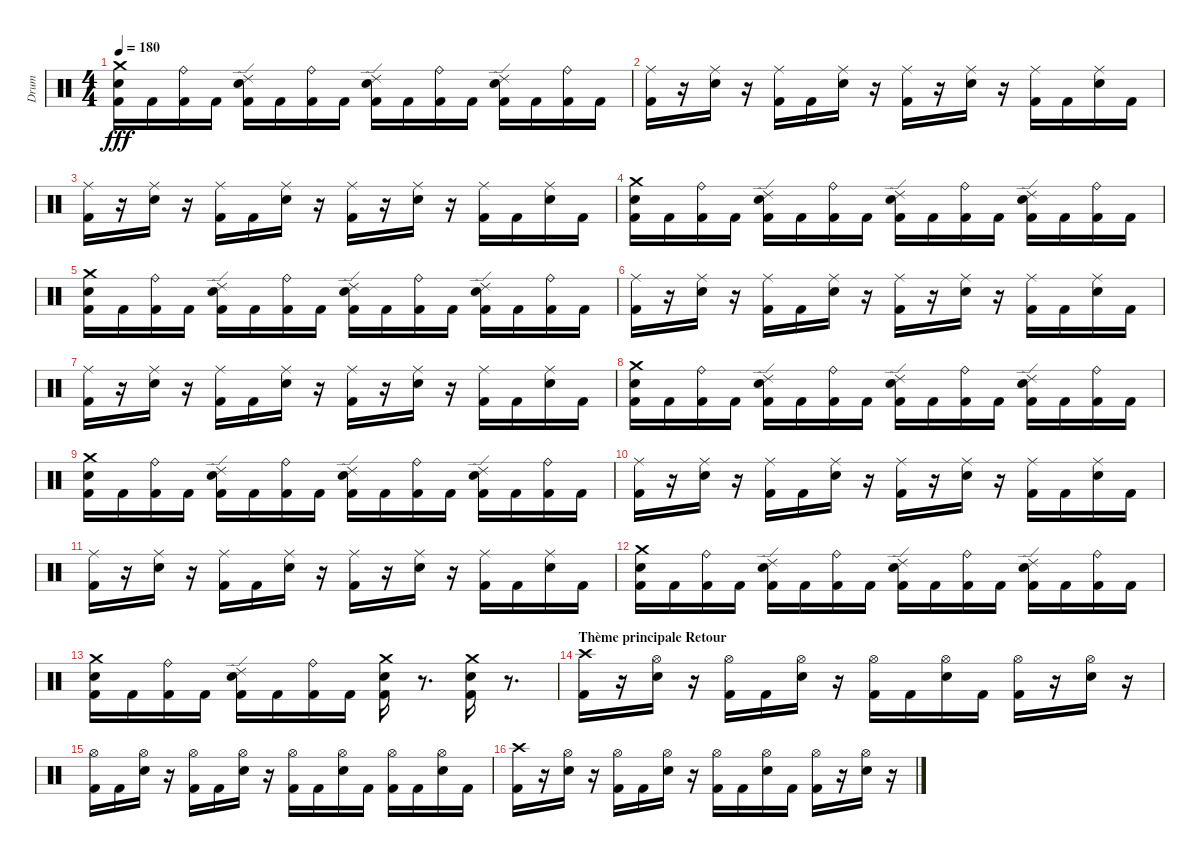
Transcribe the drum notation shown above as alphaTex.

\track ("Drum" "Drum") {instrument percussion}
\staff {score}
\articulation defaults
\ts (4 4)
\tempo 180
\clef neutral
\ks c
("Kick (hit) 2" "Electric Snare (hit)" "Crash medium (hit)").16{dy fff} "Kick (hit) 2".16 ("Kick (hit) 2" "Ride (bell)").16 "Kick (hit) 2".16 ("Kick (hit) 2" "Electric Snare (hit)" "Ride (edge) 2").16 "Kick (hit) 2".16 ("Kick (hit) 2" "Ride (bell)").16 "Kick (hit) 2".16 ("Kick (hit) 2" "Electric Snare (hit)" "Ride (edge) 2").16 "Kick (hit) 2".16 ("Kick (hit) 2" "Ride (bell)").16 "Kick (hit) 2".16 ("Kick (hit) 2" "Electric Snare (hit)" "Ride (edge) 2").16 "Kick (hit) 2".16 ("Kick (hit) 2" "Ride (bell)").16 "Kick (hit) 2".16 |
("Kick (hit) 2" "Ride (middle)").16 r.16 ("Electric Snare (hit)" "Ride (middle)").16 r.16 ("Kick (hit) 2" "Ride (middle)").16 "Kick (hit) 2".16 ("Electric Snare (hit)" "Ride (middle)").16 r.16 ("Kick (hit) 2" "Ride (middle)").16 r.16 ("Electric Snare (hit)" "Ride (middle)").16 r.16 ("Kick (hit) 2" "Ride (middle)").16 "Kick (hit) 2".16 ("Electric Snare (hit)" "Ride (middle)").16 "Kick (hit) 2".16 |
("Kick (hit) 2" "Ride (middle)").16 r.16 ("Electric Snare (hit)" "Ride (middle)").16 r.16 ("Kick (hit) 2" "Ride (middle)").16 "Kick (hit) 2".16 ("Electric Snare (hit)" "Ride (middle)").16 r.16 ("Kick (hit) 2" "Ride (middle)").16 r.16 ("Electric Snare (hit)" "Ride (middle)").16 r.16 ("Kick (hit) 2" "Ride (middle)").16 "Kick (hit) 2".16 ("Electric Snare (hit)" "Ride (middle)").16 "Kick (hit) 2".16 |
("Kick (hit) 2" "Electric Snare (hit)" "Crash medium (hit)").16 "Kick (hit) 2".16 ("Kick (hit) 2" "Ride (bell)").16 "Kick (hit) 2".16 ("Kick (hit) 2" "Electric Snare (hit)" "Ride (edge) 2").16 "Kick (hit) 2".16 ("Kick (hit) 2" "Ride (bell)").16 "Kick (hit) 2".16 ("Kick (hit) 2" "Electric Snare (hit)" "Ride (edge) 2").16 "Kick (hit) 2".16 ("Kick (hit) 2" "Ride (bell)").16 "Kick (hit) 2".16 ("Kick (hit) 2" "Electric Snare (hit)" "Ride (edge) 2").16 "Kick (hit) 2".16 ("Kick (hit) 2" "Ride (bell)").16 "Kick (hit) 2".16 |
("Electric Snare (hit)" "Kick (hit) 2" "Crash medium (hit)").16 "Kick (hit) 2".16 ("Kick (hit) 2" "Ride (bell)").16 "Kick (hit) 2".16 ("Kick (hit) 2" "Electric Snare (hit)" "Ride (edge) 2").16 "Kick (hit) 2".16 ("Kick (hit) 2" "Ride (bell)").16 "Kick (hit) 2".16 ("Kick (hit) 2" "Electric Snare (hit)" "Ride (edge) 2").16 "Kick (hit) 2".16 ("Kick (hit) 2" "Ride (bell)").16 "Kick (hit) 2".16 ("Electric Snare (hit)" "Kick (hit) 2" "Ride (edge) 2").16 "Kick (hit) 2".16 ("Kick (hit) 2" "Ride (bell)").16 "Kick (hit) 2".16 |
("Kick (hit) 2" "Ride (middle)").16 r.16 ("Electric Snare (hit)" "Ride (middle)").16 r.16 ("Kick (hit) 2" "Ride (middle)").16 "Kick (hit) 2".16 ("Electric Snare (hit)" "Ride (middle)").16 r.16 ("Kick (hit) 2" "Ride (middle)").16 r.16 ("Electric Snare (hit)" "Ride (middle)").16 r.16 ("Kick (hit) 2" "Ride (middle)").16 "Kick (hit) 2".16 ("Electric Snare (hit)" "Ride (middle)").16 "Kick (hit) 2".16 |
("Kick (hit) 2" "Ride (middle)").16 r.16 ("Electric Snare (hit)" "Ride (middle)").16 r.16 ("Kick (hit) 2" "Ride (middle)").16 "Kick (hit) 2".16 ("Electric Snare (hit)" "Ride (middle)").16 r.16 ("Kick (hit) 2" "Ride (middle)").16 r.16 ("Electric Snare (hit)" "Ride (middle)").16 r.16 ("Kick (hit) 2" "Ride (middle)").16 "Kick (hit) 2".16 ("Electric Snare (hit)" "Ride (middle)").16 "Kick (hit) 2".16 |
("Electric Snare (hit)" "Kick (hit) 2" "Crash medium (hit)").16 "Kick (hit) 2".16 ("Kick (hit) 2" "Ride (bell)").16 "Kick (hit) 2".16 ("Electric Snare (hit)" "Kick (hit) 2" "Ride (edge) 2").16 "Kick (hit) 2".16 ("Kick (hit) 2" "Ride (bell)").16 "Kick (hit) 2".16 ("Kick (hit) 2" "Electric Snare (hit)" "Ride (edge) 2").16 "Kick (hit) 2".16 ("Kick (hit) 2" "Ride (bell)").16 "Kick (hit) 2".16 ("Kick (hit) 2" "Electric Snare (hit)" "Ride (edge) 2").16 "Kick (hit) 2".16 ("Kick (hit) 2" "Ride (bell)").16 "Kick (hit) 2".16 |
("Kick (hit) 2" "Electric Snare (hit)" "Crash medium (hit)").16 "Kick (hit) 2".16 ("Kick (hit) 2" "Ride (bell)").16 "Kick (hit) 2".16 ("Electric Snare (hit)" "Kick (hit) 2" "Ride (edge) 2").16 "Kick (hit) 2".16 ("Kick (hit) 2" "Ride (bell)").16 "Kick (hit) 2".16 ("Kick (hit) 2" "Electric Snare (hit)" "Ride (edge) 2").16 "Kick (hit) 2".16 ("Kick (hit) 2" "Ride (bell)").16 "Kick (hit) 2".16 ("Kick (hit) 2" "Electric Snare (hit)" "Ride (edge) 2").16 "Kick (hit) 2".16 ("Kick (hit) 2" "Ride (bell)").16 "Kick (hit) 2".16 |
("Kick (hit) 2" "Ride (middle)").16 r.16 ("Electric Snare (hit)" "Ride (middle)").16 r.16 ("Kick (hit) 2" "Ride (middle)").16 "Kick (hit) 2".16 ("Electric Snare (hit)" "Ride (middle)").16 r.16 ("Kick (hit) 2" "Ride (middle)").16 r.16 ("Electric Snare (hit)" "Ride (middle)").16 r.16 ("Kick (hit) 2" "Ride (middle)").16 "Kick (hit) 2".16 ("Electric Snare (hit)" "Ride (middle)").16 "Kick (hit) 2".16 |
("Kick (hit) 2" "Ride (middle)").16 r.16 ("Electric Snare (hit)" "Ride (middle)").16 r.16 ("Kick (hit) 2" "Ride (middle)").16 "Kick (hit) 2".16 ("Electric Snare (hit)" "Ride (middle)").16 r.16 ("Kick (hit) 2" "Ride (middle)").16 r.16 ("Electric Snare (hit)" "Ride (middle)").16 r.16 ("Kick (hit) 2" "Ride (middle)").16 "Kick (hit) 2".16 ("Electric Snare (hit)" "Ride (middle)").16 "Kick (hit) 2".16 |
("Electric Snare (hit)" "Kick (hit) 2" "Crash medium (hit)").16 "Kick (hit) 2".16 ("Kick (hit) 2" "Ride (bell)").16 "Kick (hit) 2".16 ("Electric Snare (hit)" "Kick (hit) 2" "Ride (edge) 2").16 "Kick (hit) 2".16 ("Kick (hit) 2" "Ride (bell)").16 "Kick (hit) 2".16 ("Electric Snare (hit)" "Kick (hit) 2" "Ride (edge) 2").16 "Kick (hit) 2".16 ("Kick (hit) 2" "Ride (bell)").16 "Kick (hit) 2".16 ("Electric Snare (hit)" "Kick (hit) 2" "Ride (edge) 2").16 "Kick (hit) 2".16 ("Kick (hit) 2" "Ride (bell)").16 "Kick (hit) 2".16 |
("Electric Snare (hit)" "Kick (hit) 2" "Crash medium (hit)").16 "Kick (hit) 2".16 ("Kick (hit) 2" "Ride (bell)").16 "Kick (hit) 2".16 ("Kick (hit) 2" "Electric Snare (hit)" "Ride (edge) 2").16 "Kick (hit) 2".16 ("Kick (hit) 2" "Ride (bell)").16 "Kick (hit) 2".16 ("Kick (hit) 2" "Electric Snare (hit)" "Crash medium (hit)").16 r.8{d} ("Kick (hit) 2" "Electric Snare (hit)" "Crash medium (hit)").16 r.8{d} |
\section ("" "Thème principale Retour")
("Kick (hit) 2" "Crash high (hit)").16 r.16 ("Electric Snare (hit)" "Hi-Hat (open)").16 r.16 ("Kick (hit) 2" "Hi-Hat (open)").16 "Kick (hit) 2".16 ("Electric Snare (hit)" "Hi-Hat (open)").16 r.16 ("Kick (hit) 2" "Hi-Hat (open)").16 "Kick (hit) 2".16 ("Electric Snare (hit)" "Hi-Hat (open)").16 "Kick (hit) 2".16 ("Kick (hit) 2" "Hi-Hat (open)").16 r.16 ("Electric Snare (hit)" "Hi-Hat (open)").16 r.16 |
("Kick (hit) 2" "Hi-Hat (open)").16 "Kick (hit) 2".16 ("Electric Snare (hit)" "Hi-Hat (open)").16 r.16 ("Kick (hit) 2" "Hi-Hat (open)").16 "Kick (hit) 2".16 ("Electric Snare (hit)" "Hi-Hat (open)").16 r.16 ("Kick (hit) 2" "Hi-Hat (open)").16 "Kick (hit) 2".16 ("Electric Snare (hit)" "Hi-Hat (open)").16 "Kick (hit) 2".16 ("Kick (hit) 2" "Hi-Hat (open)").16 "Kick (hit) 2".16 ("Electric Snare (hit)" "Hi-Hat (open)").16 "Kick (hit) 2".16 |
("Kick (hit) 2" "Crash high (hit)").16 r.16 ("Electric Snare (hit)" "Hi-Hat (open)").16 r.16 ("Kick (hit) 2" "Hi-Hat (open)").16 "Kick (hit) 2".16 ("Electric Snare (hit)" "Hi-Hat (open)").16 r.16 ("Kick (hit) 2" "Hi-Hat (open)").16 "Kick (hit) 2".16 ("Electric Snare (hit)" "Hi-Hat (open)").16 "Kick (hit) 2".16 ("Kick (hit) 2" "Hi-Hat (open)").16 r.16 ("Electric Snare (hit)" "Hi-Hat (open)").16 r.16
